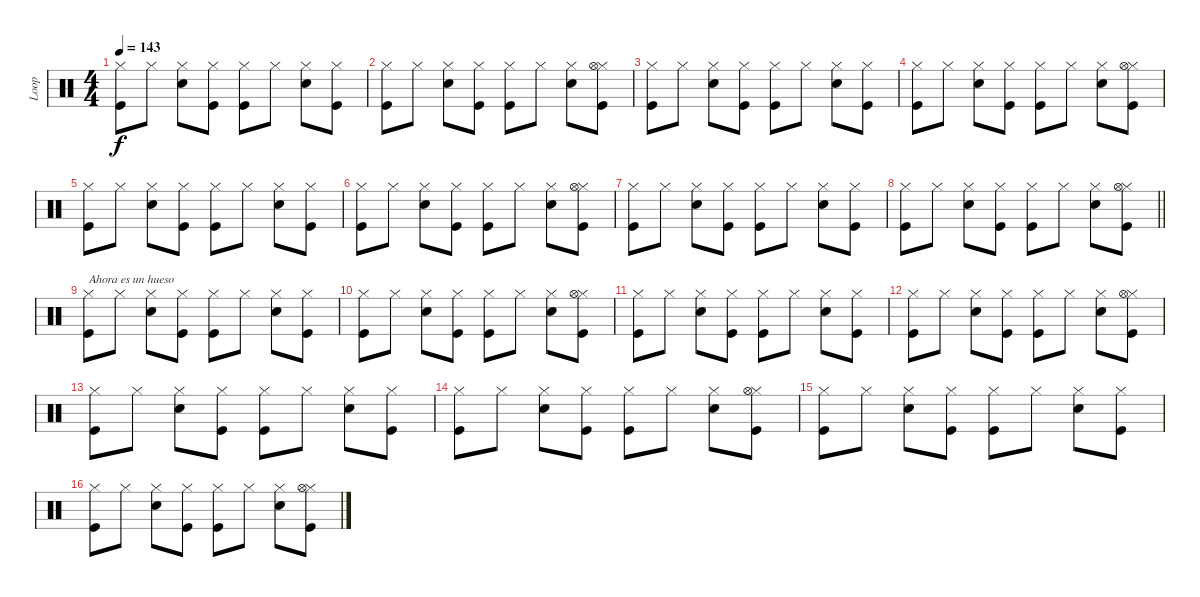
\track ("Loop" "Loop") {instrument percussion}
\staff {score}
\articulation defaults
\ts (4 4)
\tempo 143
\clef neutral
\ks c
("Kick (hit)" "Hi-Hat (closed)").8{dy f} "Hi-Hat (closed)".8 ("Snare (hit) 2" "Hi-Hat (closed)").8 ("Hi-Hat (closed)" "Kick (hit)").8 ("Hi-Hat (closed)" "Kick (hit)").8 "Hi-Hat (closed)".8 ("Hi-Hat (closed)" "Snare (hit) 2").8 ("Hi-Hat (closed)" "Kick (hit)").8 |
("Kick (hit)" "Hi-Hat (closed)").8 "Hi-Hat (closed)".8 ("Snare (hit) 2" "Hi-Hat (closed)").8 ("Hi-Hat (closed)" "Kick (hit)").8 ("Hi-Hat (closed)" "Kick (hit)").8 "Hi-Hat (closed)".8 ("Hi-Hat (closed)" "Snare (hit) 2").8 ("Hi-Hat (closed)" "Kick (hit)" "Hi-Hat (open)").8 |
("Kick (hit)" "Hi-Hat (closed)").8 "Hi-Hat (closed)".8 ("Snare (hit) 2" "Hi-Hat (closed)").8 ("Hi-Hat (closed)" "Kick (hit)").8 ("Hi-Hat (closed)" "Kick (hit)").8 "Hi-Hat (closed)".8 ("Hi-Hat (closed)" "Snare (hit) 2").8 ("Hi-Hat (closed)" "Kick (hit)").8 |
("Kick (hit)" "Hi-Hat (closed)").8 "Hi-Hat (closed)".8 ("Snare (hit) 2" "Hi-Hat (closed)").8 ("Hi-Hat (closed)" "Kick (hit)").8 ("Hi-Hat (closed)" "Kick (hit)").8 "Hi-Hat (closed)".8 ("Hi-Hat (closed)" "Snare (hit) 2").8 ("Hi-Hat (closed)" "Kick (hit)" "Hi-Hat (open)").8 |
("Kick (hit)" "Hi-Hat (closed)").8 "Hi-Hat (closed)".8 ("Snare (hit) 2" "Hi-Hat (closed)").8 ("Hi-Hat (closed)" "Kick (hit)").8 ("Hi-Hat (closed)" "Kick (hit)").8 "Hi-Hat (closed)".8 ("Hi-Hat (closed)" "Snare (hit) 2").8 ("Hi-Hat (closed)" "Kick (hit)").8 |
("Kick (hit)" "Hi-Hat (closed)").8 "Hi-Hat (closed)".8 ("Snare (hit) 2" "Hi-Hat (closed)").8 ("Hi-Hat (closed)" "Kick (hit)").8 ("Hi-Hat (closed)" "Kick (hit)").8 "Hi-Hat (closed)".8 ("Hi-Hat (closed)" "Snare (hit) 2").8 ("Hi-Hat (closed)" "Kick (hit)" "Hi-Hat (open)").8 |
("Kick (hit)" "Hi-Hat (closed)").8 "Hi-Hat (closed)".8 ("Snare (hit) 2" "Hi-Hat (closed)").8 ("Hi-Hat (closed)" "Kick (hit)").8 ("Hi-Hat (closed)" "Kick (hit)").8 "Hi-Hat (closed)".8 ("Hi-Hat (closed)" "Snare (hit) 2").8 ("Hi-Hat (closed)" "Kick (hit)").8 |
\barLineRight lightlight
("Kick (hit)" "Hi-Hat (closed)").8 "Hi-Hat (closed)".8 ("Snare (hit) 2" "Hi-Hat (closed)").8 ("Hi-Hat (closed)" "Kick (hit)").8 ("Hi-Hat (closed)" "Kick (hit)").8 "Hi-Hat (closed)".8 ("Hi-Hat (closed)" "Snare (hit) 2").8 ("Hi-Hat (closed)" "Kick (hit)" "Hi-Hat (open)").8 |
("Kick (hit)" "Hi-Hat (closed)").8{txt "Ahora es un hueso"} "Hi-Hat (closed)".8 ("Snare (hit) 2" "Hi-Hat (closed)").8 ("Hi-Hat (closed)" "Kick (hit)").8 ("Hi-Hat (closed)" "Kick (hit)").8 "Hi-Hat (closed)".8 ("Hi-Hat (closed)" "Snare (hit) 2").8 ("Hi-Hat (closed)" "Kick (hit)").8 |
("Kick (hit)" "Hi-Hat (closed)").8 "Hi-Hat (closed)".8 ("Snare (hit) 2" "Hi-Hat (closed)").8 ("Hi-Hat (closed)" "Kick (hit)").8 ("Hi-Hat (closed)" "Kick (hit)").8 "Hi-Hat (closed)".8 ("Hi-Hat (closed)" "Snare (hit) 2").8 ("Hi-Hat (closed)" "Kick (hit)" "Hi-Hat (open)").8 |
("Kick (hit)" "Hi-Hat (closed)").8 "Hi-Hat (closed)".8 ("Snare (hit) 2" "Hi-Hat (closed)").8 ("Hi-Hat (closed)" "Kick (hit)").8 ("Hi-Hat (closed)" "Kick (hit)").8 "Hi-Hat (closed)".8 ("Hi-Hat (closed)" "Snare (hit) 2").8 ("Hi-Hat (closed)" "Kick (hit)").8 |
("Kick (hit)" "Hi-Hat (closed)").8 "Hi-Hat (closed)".8 ("Snare (hit) 2" "Hi-Hat (closed)").8 ("Hi-Hat (closed)" "Kick (hit)").8 ("Hi-Hat (closed)" "Kick (hit)").8 "Hi-Hat (closed)".8 ("Hi-Hat (closed)" "Snare (hit) 2").8 ("Hi-Hat (closed)" "Kick (hit)" "Hi-Hat (open)").8 |
("Kick (hit)" "Hi-Hat (closed)").8 "Hi-Hat (closed)".8 ("Snare (hit) 2" "Hi-Hat (closed)").8 ("Hi-Hat (closed)" "Kick (hit)").8 ("Hi-Hat (closed)" "Kick (hit)").8 "Hi-Hat (closed)".8 ("Hi-Hat (closed)" "Snare (hit) 2").8 ("Hi-Hat (closed)" "Kick (hit)").8 |
("Kick (hit)" "Hi-Hat (closed)").8 "Hi-Hat (closed)".8 ("Snare (hit) 2" "Hi-Hat (closed)").8 ("Hi-Hat (closed)" "Kick (hit)").8 ("Hi-Hat (closed)" "Kick (hit)").8 "Hi-Hat (closed)".8 ("Hi-Hat (closed)" "Snare (hit) 2").8 ("Hi-Hat (closed)" "Kick (hit)" "Hi-Hat (open)").8 |
("Kick (hit)" "Hi-Hat (closed)").8 "Hi-Hat (closed)".8 ("Snare (hit) 2" "Hi-Hat (closed)").8 ("Hi-Hat (closed)" "Kick (hit)").8 ("Hi-Hat (closed)" "Kick (hit)").8 "Hi-Hat (closed)".8 ("Hi-Hat (closed)" "Snare (hit) 2").8 ("Hi-Hat (closed)" "Kick (hit)").8 |
("Kick (hit)" "Hi-Hat (closed)").8 "Hi-Hat (closed)".8 ("Snare (hit) 2" "Hi-Hat (closed)").8 ("Hi-Hat (closed)" "Kick (hit)").8 ("Hi-Hat (closed)" "Kick (hit)").8 "Hi-Hat (closed)".8 ("Hi-Hat (closed)" "Snare (hit) 2").8 ("Hi-Hat (closed)" "Kick (hit)" "Hi-Hat (open)").8
